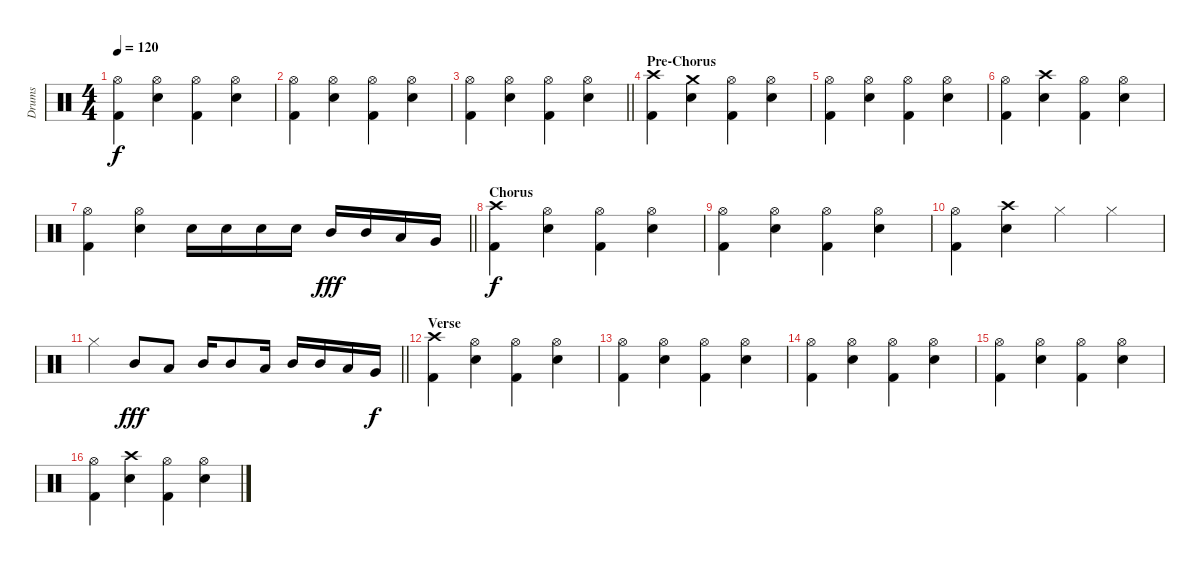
\track ("Drums" "Drums") {instrument percussion}
\staff {score}
\articulation defaults
\ts (4 4)
\tempo 120
\clef neutral
\ks c
("Hi-Hat (open)" "Kick (hit) 2").4{dy f} ("Hi-Hat (open)" "Snare (hit) 2").4 ("Hi-Hat (open)" "Kick (hit) 2").4 ("Hi-Hat (open)" "Snare (hit) 2").4 |
("Hi-Hat (open)" "Kick (hit) 2").4 ("Hi-Hat (open)" "Snare (hit) 2").4 ("Hi-Hat (open)" "Kick (hit) 2").4 ("Hi-Hat (open)" "Snare (hit) 2").4 |
\barLineRight lightlight
("Hi-Hat (open)" "Kick (hit) 2").4 ("Hi-Hat (open)" "Snare (hit) 2").4 ("Hi-Hat (open)" "Kick (hit) 2").4 ("Hi-Hat (open)" "Snare (hit) 2").4 |
\section ("" "Pre-Chorus")
("Crash high (hit)" "Kick (hit) 2").4 ("Crash medium (hit)" "Snare (hit) 2").4 ("Hi-Hat (open)" "Kick (hit) 2").4 ("Hi-Hat (open)" "Snare (hit) 2").4 |
("Hi-Hat (open)" "Kick (hit) 2").4 ("Hi-Hat (open)" "Snare (hit) 2").4 ("Hi-Hat (open)" "Kick (hit) 2").4 ("Hi-Hat (open)" "Snare (hit) 2").4 |
("Hi-Hat (open)" "Kick (hit) 2").4 ("Crash high (hit)" "Snare (hit) 2").4 ("Hi-Hat (open)" "Kick (hit) 2").4 ("Hi-Hat (open)" "Snare (hit) 2").4 |
\barLineRight lightlight
("Hi-Hat (open)" "Kick (hit) 2").4 ("Hi-Hat (open)" "Snare (hit) 2").4 "Snare (hit) 2".16 "Snare (hit) 2".16 "Snare (hit) 2".16 "Snare (hit) 2".16 "Mid Tom (hit)".16{dy fff} "Mid Tom (hit)".16 "Low Tom (hit)".16 "Very Low Tom (hit)".16 |
\section ("" "Chorus")
("Crash high (hit)" "Kick (hit) 2").4{dy f} ("Hi-Hat (open)" "Snare (hit) 2").4 ("Hi-Hat (open)" "Kick (hit) 2").4 ("Hi-Hat (open)" "Snare (hit) 2").4 |
("Hi-Hat (open)" "Kick (hit) 2").4 ("Hi-Hat (open)" "Snare (hit) 2").4 ("Hi-Hat (open)" "Kick (hit) 2").4 ("Hi-Hat (open)" "Snare (hit) 2").4 |
("Hi-Hat (open)" "Kick (hit) 2").4 ("Crash high (hit)" "Snare (hit) 2").4 "Hi-Hat (closed)".4 "Hi-Hat (closed)".4 |
\barLineRight lightlight "Hi-Hat (closed)".4 "Mid Tom (hit)".8{dy fff} "Low Tom (hit)".8 "Mid Tom (hit)".16 "Mid Tom (hit)".8 "Low Tom (hit)".16 "Mid Tom (hit)".16 "Mid Tom (hit)".16 "Low Tom (hit)".16 "Very Low Tom (hit)".16{dy f}
|
\section ("" "Verse")
("Crash high (hit)" "Kick (hit) 2").4 ("Hi-Hat (open)" "Snare (hit) 2").4 ("Hi-Hat (open)" "Kick (hit) 2").4 ("Hi-Hat (open)" "Snare (hit) 2").4 |
("Hi-Hat (open)" "Kick (hit) 2").4 ("Hi-Hat (open)" "Snare (hit) 2").4 ("Hi-Hat (open)" "Kick (hit) 2").4 ("Hi-Hat (open)" "Snare (hit) 2").4 |
("Hi-Hat (open)" "Kick (hit) 2").4 ("Hi-Hat (open)" "Snare (hit) 2").4 ("Hi-Hat (open)" "Kick (hit) 2").4 ("Hi-Hat (open)" "Snare (hit) 2").4 |
("Hi-Hat (open)" "Kick (hit) 2").4 ("Hi-Hat (open)" "Snare (hit) 2").4 ("Hi-Hat (open)" "Kick (hit) 2").4 ("Hi-Hat (open)" "Snare (hit) 2").4 |
("Hi-Hat (open)" "Kick (hit) 2").4 ("Crash high (hit)" "Snare (hit) 2").4 ("Hi-Hat (open)" "Kick (hit) 2").4 ("Hi-Hat (open)" "Snare (hit) 2").4
